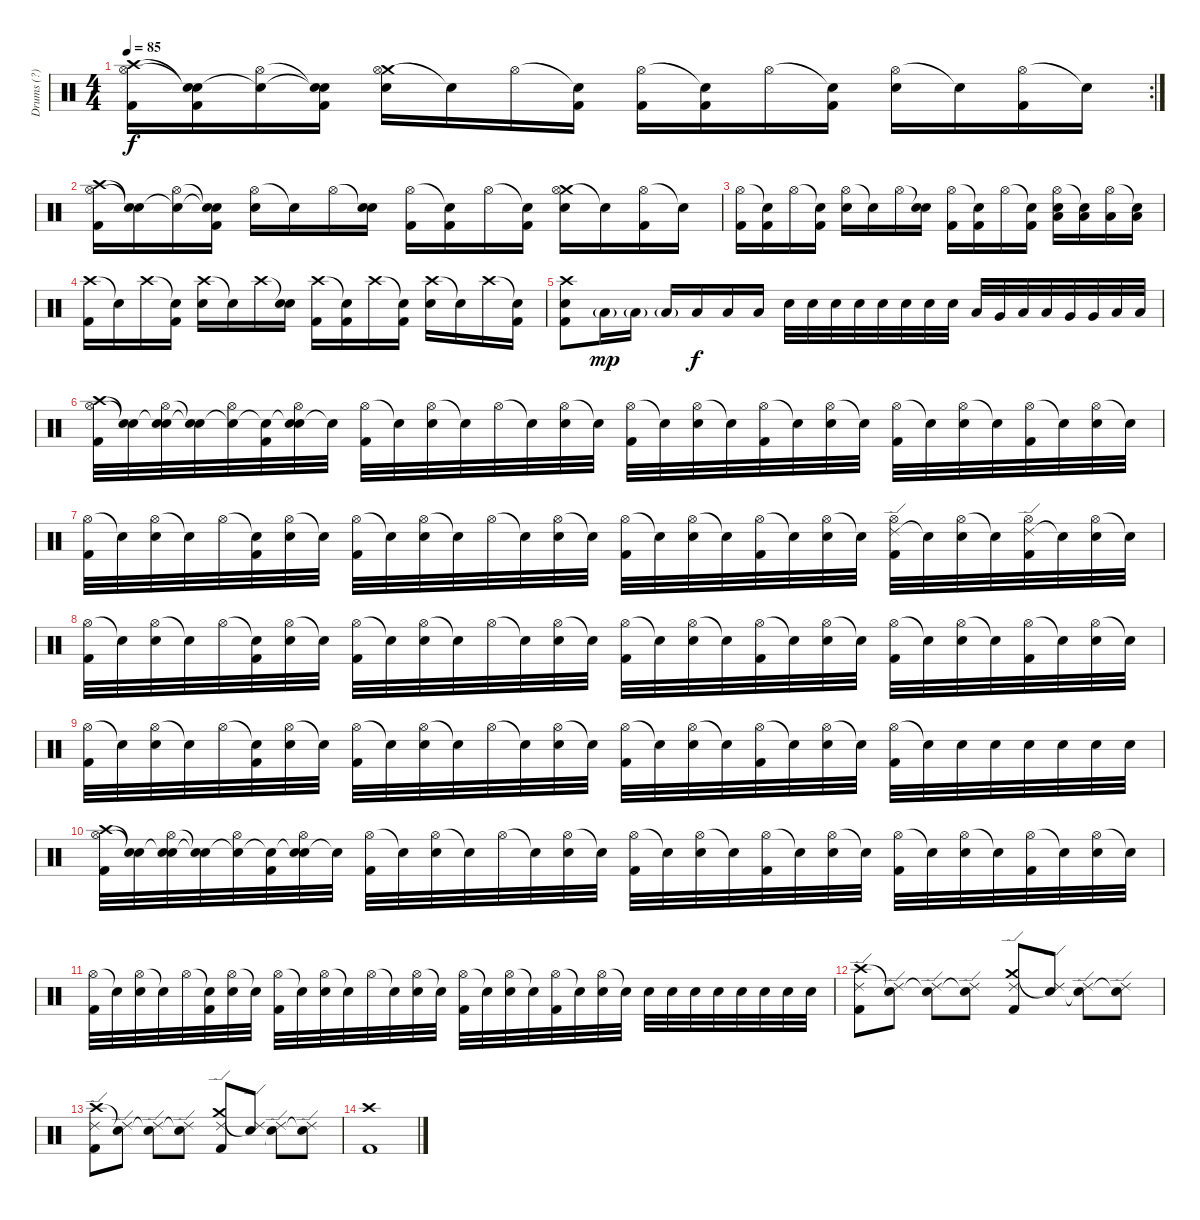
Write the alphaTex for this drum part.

\track ("Drums (?)" "Drums (?)") {instrument percussion}
\staff {score}
\articulation defaults
\rc 2
\ts (4 4)
\tempo 85
\clef neutral
\ks c
("Crash high (hit)" "Hi-Hat (open)" "Kick (hit) 2").16{dy f} ("Snare (hit)"{t} "Snare (hit)"{t} "Kick (hit) 2").16 ("Snare (hit)"{t} "Hi-Hat (open)").16 ("Snare (hit)"{t} "Snare (hit)"{t} "Kick (hit) 2").16 ("Crash medium (hit)" "Hi-Hat (open)" "Electric Snare (hit)").16 "Snare (hit)"{t}.16 "Hi-Hat (open)".16 ("Snare (hit)"{t} "Kick (hit) 2").16 ("Hi-Hat (open)" "Kick (hit) 2").16 ("Snare (hit)"{t} "Kick (hit) 2").16 "Hi-Hat (open)".16 ("Snare (hit)"{t} "Kick (hit) 2").16 ("Hi-Hat (open)" "Electric Snare (hit)").16 "Snare (hit)"{t}.16 ("Hi-Hat (open)" "Kick (hit) 2").16 "Snare (hit)"{t}.16 |
("Crash high (hit)" "Hi-Hat (open)" "Kick (hit) 2").16 ("Snare (hit)"{t} "Snare (hit)"{t}).16 ("Snare (hit)"{t} "Hi-Hat (open)").16 ("Snare (hit)"{t} "Snare (hit)"{t} "Kick (hit) 2").16 ("Hi-Hat (open)" "Electric Snare (hit)").16 "Snare (hit)"{t}.16 "Hi-Hat (open)".16 ("Snare (hit)"{t} "Electric Snare (hit)").16 ("Hi-Hat (open)" "Kick (hit) 2").16 ("Snare (hit)"{t} "Kick (hit) 2").16 "Hi-Hat (open)".16 ("Snare (hit)"{t} "Kick (hit) 2").16 ("Crash medium (hit)" "Hi-Hat (open)" "Electric Snare (hit)").16 "Snare (hit)"{t}.16 ("Hi-Hat (open)" "Kick (hit) 2").16 "Snare (hit)"{t}.16 |
("Hi-Hat (open)" "Kick (hit) 2").16 ("Snare (hit)"{t} "Kick (hit) 2").16 "Hi-Hat (open)".16 ("Snare (hit)"{t} "Kick (hit) 2").16 ("Hi-Hat (open)" "Electric Snare (hit)").16 "Snare (hit)"{t}.16 "Hi-Hat (open)".16 ("Snare (hit)"{t} "Electric Snare (hit)").16 ("Hi-Hat (open)" "Kick (hit) 2").16 ("Snare (hit)"{t} "Kick (hit) 2").16 "Hi-Hat (open)".16 ("Snare (hit)"{t} "Kick (hit) 2").16 ("Hi-Hat (open)" "Electric Snare (hit)" "Low Tom (hit)").16 ("Snare (hit)"{t} "Low Tom (hit)").16 ("Hi-Hat (open)" "Low Tom (hit)").16 ("Snare (hit)"{t} "Low Tom (hit)").16 |
("Crash high (hit)" "Kick (hit) 2").16 "Snare (hit)"{t}.16 "Crash high (hit)".16 ("Snare (hit)"{t} "Kick (hit) 2").16 ("Crash high (hit)" "Electric Snare (hit)").16 "Snare (hit)"{t}.16 "Crash high (hit)".16 ("Snare (hit)"{t} "Electric Snare (hit)").16 ("Crash high (hit)" "Kick (hit) 2").16 ("Snare (hit)"{t} "Kick (hit) 2").16 "Crash high (hit)".16 ("Snare (hit)"{t} "Kick (hit) 2").16 ("Crash high (hit)" "Electric Snare (hit)").16 "Snare (hit)"{t}.16 "Crash high (hit)".16 ("Snare (hit)"{t} "Kick (hit) 2").16 |
("Crash high (hit)" "Electric Snare (hit)" "Kick (hit) 2").8 "Low Tom (hit)"{g}.16{dy mp} "Low Tom (hit)"{g}.16 "Low Tom (hit)"{g}.16 "Low Tom (hit)".16{dy f} "Low Tom (hit)".16 "Low Tom (hit)".16 "Electric Snare (hit)".32 "Electric Snare (hit)".32 "Electric Snare (hit)".32 "Electric Snare (hit)".32 "Electric Snare (hit)".32 "Electric Snare (hit)".32 "Electric Snare (hit)".32 "Electric Snare (hit)".32 "Low Tom (hit)".32 "Very Low Tom (hit)".32 "Low Tom (hit)".32 "Low Tom (hit)".32 "Very Low Tom (hit)".32 "Very Low Tom (hit)".32 "Low Floor Tom (hit)".32 "Low Floor Tom (hit)".32 |
("Crash high (hit)" "Hi-Hat (open)" "Kick (hit) 2").32{volume 14} ("Snare (hit)"{t} "Snare (hit)"{t}).32 ("Snare (hit)"{t} "Hi-Hat (open)" "Electric Snare (hit)").32 ("Snare (hit)"{t} "Snare (hit)"{t}).32 ("Snare (hit)"{t} "Hi-Hat (open)").32 ("Snare (hit)"{t} "Kick (hit) 2").32 ("Snare (hit)"{t} "Hi-Hat (open)" "Electric Snare (hit)").32 "Snare (hit)"{t}.32 ("Hi-Hat (open)" "Kick (hit) 2").32 "Snare (hit)"{t}.32 ("Hi-Hat (open)" "Electric Snare (hit)").32 "Snare (hit)"{t}.32 "Hi-Hat (open)".32 "Snare (hit)"{t}.32 ("Hi-Hat (open)" "Electric Snare (hit)").32 "Snare (hit)"{t}.32 ("Hi-Hat (open)" "Kick (hit) 2").32 "Snare (hit)"{t}.32 ("Hi-Hat (open)" "Electric Snare (hit)").32 "Snare (hit)"{t}.32 ("Hi-Hat (open)" "Kick (hit) 2").32 "Snare (hit)"{t}.32 ("Hi-Hat (open)" "Electric Snare (hit)").32 "Snare (hit)"{t}.32 ("Hi-Hat (open)" "Kick (hit) 2").32 "Snare (hit)"{t}.32 ("Hi-Hat (open)" "Electric Snare (hit)").32 "Snare (hit)"{t}.32 ("Hi-Hat (open)" "Kick (hit) 2").32 "Snare (hit)"{t}.32 ("Hi-Hat (open)" "Electric Snare (hit)").32 "Snare (hit)"{t}.32 |
("Hi-Hat (open)" "Kick (hit) 2").32{volume 14} "Snare (hit)"{t}.32 ("Hi-Hat (open)" "Electric Snare (hit)").32 "Snare (hit)"{t}.32 "Hi-Hat (open)".32 ("Snare (hit)"{t} "Kick (hit) 2").32 ("Hi-Hat (open)" "Electric Snare (hit)").32 "Snare (hit)"{t}.32 ("Hi-Hat (open)" "Kick (hit) 2").32 "Snare (hit)"{t}.32 ("Hi-Hat (open)" "Electric Snare (hit)").32 "Snare (hit)"{t}.32 "Hi-Hat (open)".32 "Snare (hit)"{t}.32 ("Hi-Hat (open)" "Electric Snare (hit)").32 "Snare (hit)"{t}.32 ("Hi-Hat (open)" "Kick (hit) 2").32 "Snare (hit)"{t}.32 ("Hi-Hat (open)" "Electric Snare (hit)").32 "Snare (hit)"{t}.32 ("Hi-Hat (open)" "Kick (hit) 2").32 "Snare (hit)"{t}.32 ("Hi-Hat (open)" "Electric Snare (hit)").32 "Snare (hit)"{t}.32 ("Ride (edge) 2" "Hi-Hat (open)" "Kick (hit) 2").32 "Snare (hit)"{t}.32 ("Hi-Hat (open)" "Electric Snare (hit)").32 "Snare (hit)"{t}.32 ("Ride (edge) 2" "Hi-Hat (open)" "Kick (hit) 2").32 "Snare (hit)"{t}.32 ("Hi-Hat (open)" "Electric Snare (hit)").32 "Snare (hit)"{t}.32 |
("Hi-Hat (open)" "Kick (hit) 2").32{volume 14} "Snare (hit)"{t}.32 ("Hi-Hat (open)" "Electric Snare (hit)").32 "Snare (hit)"{t}.32 "Hi-Hat (open)".32 ("Snare (hit)"{t} "Kick (hit) 2").32 ("Hi-Hat (open)" "Electric Snare (hit)").32 "Snare (hit)"{t}.32 ("Hi-Hat (open)" "Kick (hit) 2").32 "Snare (hit)"{t}.32 ("Hi-Hat (open)" "Electric Snare (hit)").32 "Snare (hit)"{t}.32 "Hi-Hat (open)".32 "Snare (hit)"{t}.32 ("Hi-Hat (open)" "Electric Snare (hit)").32 "Snare (hit)"{t}.32 ("Hi-Hat (open)" "Kick (hit) 2").32 "Snare (hit)"{t}.32 ("Hi-Hat (open)" "Electric Snare (hit)").32 "Snare (hit)"{t}.32 ("Hi-Hat (open)" "Kick (hit) 2").32 "Snare (hit)"{t}.32 ("Hi-Hat (open)" "Electric Snare (hit)").32 "Snare (hit)"{t}.32 ("Hi-Hat (open)" "Kick (hit) 2").32 "Snare (hit)"{t}.32 ("Hi-Hat (open)" "Electric Snare (hit)").32 "Snare (hit)"{t}.32 ("Hi-Hat (open)" "Kick (hit) 2").32 "Snare (hit)"{t}.32 ("Hi-Hat (open)" "Electric Snare (hit)").32 "Snare (hit)"{t}.32 |
("Hi-Hat (open)" "Kick (hit) 2").32{volume 14} "Snare (hit)"{t}.32 ("Hi-Hat (open)" "Electric Snare (hit)").32 "Snare (hit)"{t}.32 "Hi-Hat (open)".32 ("Snare (hit)"{t} "Kick (hit) 2").32 ("Hi-Hat (open)" "Electric Snare (hit)").32 "Snare (hit)"{t}.32 ("Hi-Hat (open)" "Kick (hit) 2").32 "Snare (hit)"{t}.32 ("Hi-Hat (open)" "Electric Snare (hit)").32 "Snare (hit)"{t}.32 "Hi-Hat (open)".32 "Snare (hit)"{t}.32 ("Hi-Hat (open)" "Electric Snare (hit)").32 "Snare (hit)"{t}.32 ("Hi-Hat (open)" "Kick (hit) 2").32 "Snare (hit)"{t}.32 ("Hi-Hat (open)" "Electric Snare (hit)").32 "Snare (hit)"{t}.32 ("Hi-Hat (open)" "Kick (hit) 2").32 "Snare (hit)"{t}.32 ("Hi-Hat (open)" "Electric Snare (hit)").32 "Snare (hit)"{t}.32 ("Hi-Hat (open)" "Kick (hit) 2").32 "Snare (hit)"{t}.32 "Electric Snare (hit)".32 "Electric Snare (hit)".32 "Electric Snare (hit)".32 "Electric Snare (hit)".32 "Electric Snare (hit)".32 "Electric Snare (hit)".32 |
("Crash high (hit)" "Hi-Hat (open)" "Kick (hit) 2").32{volume 14} ("Snare (hit)"{t} "Snare (hit)"{t}).32 ("Snare (hit)"{t} "Hi-Hat (open)" "Electric Snare (hit)").32 ("Snare (hit)"{t} "Snare (hit)"{t}).32 ("Snare (hit)"{t} "Hi-Hat (open)").32 ("Snare (hit)"{t} "Kick (hit) 2").32 ("Snare (hit)"{t} "Hi-Hat (open)" "Electric Snare (hit)").32 "Snare (hit)"{t}.32 ("Hi-Hat (open)" "Kick (hit) 2").32 "Snare (hit)"{t}.32 ("Hi-Hat (open)" "Electric Snare (hit)").32 "Snare (hit)"{t}.32 "Hi-Hat (open)".32 "Snare (hit)"{t}.32 ("Hi-Hat (open)" "Electric Snare (hit)").32 "Snare (hit)"{t}.32 ("Hi-Hat (open)" "Kick (hit) 2").32 "Snare (hit)"{t}.32 ("Hi-Hat (open)" "Electric Snare (hit)").32 "Snare (hit)"{t}.32 ("Hi-Hat (open)" "Kick (hit) 2").32 "Snare (hit)"{t}.32 ("Hi-Hat (open)" "Electric Snare (hit)").32 "Snare (hit)"{t}.32 ("Hi-Hat (open)" "Kick (hit) 2").32 "Snare (hit)"{t}.32 ("Hi-Hat (open)" "Electric Snare (hit)").32 "Snare (hit)"{t}.32 ("Hi-Hat (open)" "Kick (hit) 2").32 "Snare (hit)"{t}.32 ("Hi-Hat (open)" "Electric Snare (hit)").32 "Snare (hit)"{t}.32 |
("Hi-Hat (open)" "Kick (hit) 2").32{volume 14} "Snare (hit)"{t}.32 ("Hi-Hat (open)" "Electric Snare (hit)").32 "Snare (hit)"{t}.32 "Hi-Hat (open)".32 ("Snare (hit)"{t} "Kick (hit) 2").32 ("Hi-Hat (open)" "Electric Snare (hit)").32 "Snare (hit)"{t}.32 ("Hi-Hat (open)" "Kick (hit) 2").32 "Snare (hit)"{t}.32 ("Hi-Hat (open)" "Electric Snare (hit)").32 "Snare (hit)"{t}.32 "Hi-Hat (open)".32 "Snare (hit)"{t}.32 ("Hi-Hat (open)" "Electric Snare (hit)").32 "Snare (hit)"{t}.32 ("Hi-Hat (open)" "Kick (hit) 2").32 "Snare (hit)"{t}.32 ("Hi-Hat (open)" "Electric Snare (hit)").32 "Snare (hit)"{t}.32 ("Hi-Hat (open)" "Kick (hit) 2").32 "Snare (hit)"{t}.32 ("Hi-Hat (open)" "Electric Snare (hit)").32 "Snare (hit)"{t}.32 "Electric Snare (hit)".32 "Electric Snare (hit)".32 "Electric Snare (hit)".32 "Electric Snare (hit)".32 "Electric Snare (hit)".32 "Electric Snare (hit)".32 "Electric Snare (hit)".32 "Electric Snare (hit)".32 |
("Crash high (hit)" "Ride (edge) 2" "Kick (hit) 2").8 ("Snare (hit)"{t} "Ride (edge) 2").8 ("Snare (hit)"{t} "Ride (edge) 2").8 ("Snare (hit)"{t} "Ride (edge) 2").8 ("Crash medium (hit)" "Ride (edge) 2" "Kick (hit) 2").8 ("Snare (hit)"{t} "Ride (edge) 2").8 ("Snare (hit)"{t} "Ride (edge) 2").8 ("Snare (hit)"{t} "Ride (edge) 2").8 |
("Crash high (hit)" "Ride (edge) 2" "Kick (hit) 2").8 ("Snare (hit)"{t} "Ride (edge) 2").8 ("Snare (hit)"{t} "Ride (edge) 2").8 ("Snare (hit)"{t} "Ride (edge) 2").8 ("Crash medium (hit)" "Ride (edge) 2" "Kick (hit) 2").8 ("Snare (hit)"{t} "Ride (edge) 2").8 ("Snare (hit)"{t} "Ride (edge) 2").8 ("Snare (hit)"{t} "Ride (edge) 2").8 |
("Crash high (hit)" "Kick (hit) 2").1
